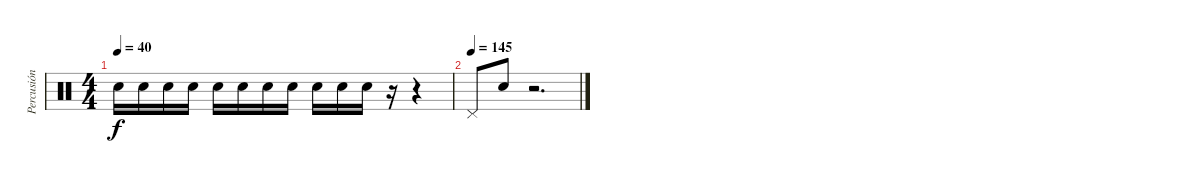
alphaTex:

\track ("Percusión" "Percusión") {instrument percussion}
\staff {score}
\articulation defaults
\ts (4 4)
\tempo 40
\clef neutral
\ks c "Electric Snare (hit)".16{dy f} "Electric Snare (hit)".16 "Electric Snare (hit)".16 "Electric Snare (hit)".16 "Electric Snare (hit)".16 "Electric Snare (hit)".16 "Electric Snare (hit)".16 "Electric Snare (hit)".16 "Electric Snare (hit)".16 "Electric Snare (hit)".16 "Electric Snare (hit)".16
r.16 r.4 |
\tempo (145)
"Pedal Hi-Hat (hit)".8 "Electric Snare (hit)".8 r.2{d}
